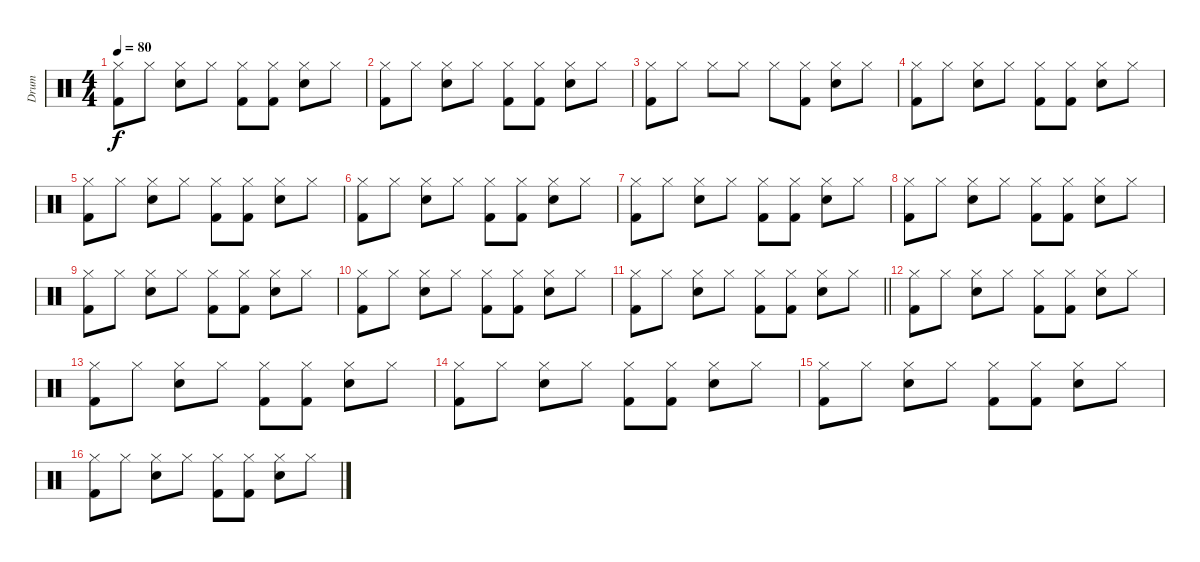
\track ("Drum" "Drum") {instrument percussion}
\staff {score}
\articulation defaults
\ts (4 4)
\tempo 80
\clef neutral
\ks c
("Hi-Hat (closed)" "Kick (hit) 2").8{dy f} "Hi-Hat (closed)".8 ("Hi-Hat (closed)" "Electric Snare (hit)").8 "Hi-Hat (closed)".8 ("Hi-Hat (closed)" "Kick (hit) 2").8 ("Hi-Hat (closed)" "Kick (hit) 2").8 ("Hi-Hat (closed)" "Electric Snare (hit)").8 "Hi-Hat (closed)".8 |
("Hi-Hat (closed)" "Kick (hit) 2").8 "Hi-Hat (closed)".8 ("Hi-Hat (closed)" "Electric Snare (hit)").8 "Hi-Hat (closed)".8 ("Hi-Hat (closed)" "Kick (hit) 2").8 ("Hi-Hat (closed)" "Kick (hit) 2").8 ("Hi-Hat (closed)" "Electric Snare (hit)").8 "Hi-Hat (closed)".8 |
("Hi-Hat (closed)" "Kick (hit) 2").8 "Hi-Hat (closed)".8 "Hi-Hat (closed)".8 "Hi-Hat (closed)".8 "Hi-Hat (closed)".8 ("Hi-Hat (closed)" "Kick (hit) 2").8 ("Hi-Hat (closed)" "Electric Snare (hit)").8 "Hi-Hat (closed)".8 |
("Hi-Hat (closed)" "Kick (hit) 2").8 "Hi-Hat (closed)".8 ("Hi-Hat (closed)" "Electric Snare (hit)").8 "Hi-Hat (closed)".8 ("Hi-Hat (closed)" "Kick (hit) 2").8 ("Hi-Hat (closed)" "Kick (hit) 2").8 ("Hi-Hat (closed)" "Electric Snare (hit)").8 "Hi-Hat (closed)".8 |
("Hi-Hat (closed)" "Kick (hit) 2").8 "Hi-Hat (closed)".8 ("Hi-Hat (closed)" "Electric Snare (hit)").8 "Hi-Hat (closed)".8 ("Hi-Hat (closed)" "Kick (hit) 2").8 ("Hi-Hat (closed)" "Kick (hit) 2").8 ("Hi-Hat (closed)" "Electric Snare (hit)").8 "Hi-Hat (closed)".8 |
("Hi-Hat (closed)" "Kick (hit) 2").8 "Hi-Hat (closed)".8 ("Hi-Hat (closed)" "Electric Snare (hit)").8 "Hi-Hat (closed)".8 ("Hi-Hat (closed)" "Kick (hit) 2").8 ("Hi-Hat (closed)" "Kick (hit) 2").8 ("Hi-Hat (closed)" "Electric Snare (hit)").8 "Hi-Hat (closed)".8 |
("Hi-Hat (closed)" "Kick (hit) 2").8 "Hi-Hat (closed)".8 ("Hi-Hat (closed)" "Electric Snare (hit)").8 "Hi-Hat (closed)".8 ("Hi-Hat (closed)" "Kick (hit) 2").8 ("Hi-Hat (closed)" "Kick (hit) 2").8 ("Hi-Hat (closed)" "Electric Snare (hit)").8 "Hi-Hat (closed)".8 |
("Hi-Hat (closed)" "Kick (hit) 2").8 "Hi-Hat (closed)".8 ("Hi-Hat (closed)" "Electric Snare (hit)").8 "Hi-Hat (closed)".8 ("Hi-Hat (closed)" "Kick (hit) 2").8 ("Hi-Hat (closed)" "Kick (hit) 2").8 ("Hi-Hat (closed)" "Electric Snare (hit)").8 "Hi-Hat (closed)".8 |
("Hi-Hat (closed)" "Kick (hit) 2").8 "Hi-Hat (closed)".8 ("Hi-Hat (closed)" "Electric Snare (hit)").8 "Hi-Hat (closed)".8 ("Hi-Hat (closed)" "Kick (hit) 2").8 ("Hi-Hat (closed)" "Kick (hit) 2").8 ("Hi-Hat (closed)" "Electric Snare (hit)").8 "Hi-Hat (closed)".8 |
("Hi-Hat (closed)" "Kick (hit) 2").8 "Hi-Hat (closed)".8 ("Hi-Hat (closed)" "Electric Snare (hit)").8 "Hi-Hat (closed)".8 ("Hi-Hat (closed)" "Kick (hit) 2").8 ("Hi-Hat (closed)" "Kick (hit) 2").8 ("Hi-Hat (closed)" "Electric Snare (hit)").8 "Hi-Hat (closed)".8 |
\barLineRight lightlight
("Hi-Hat (closed)" "Kick (hit) 2").8 "Hi-Hat (closed)".8 ("Hi-Hat (closed)" "Electric Snare (hit)").8 "Hi-Hat (closed)".8 ("Hi-Hat (closed)" "Kick (hit) 2").8 ("Hi-Hat (closed)" "Kick (hit) 2").8 ("Hi-Hat (closed)" "Electric Snare (hit)").8 "Hi-Hat (closed)".8 |
("Hi-Hat (closed)" "Kick (hit) 2").8 "Hi-Hat (closed)".8 ("Hi-Hat (closed)" "Electric Snare (hit)").8 "Hi-Hat (closed)".8 ("Hi-Hat (closed)" "Kick (hit) 2").8 ("Hi-Hat (closed)" "Kick (hit) 2").8 ("Hi-Hat (closed)" "Electric Snare (hit)").8 "Hi-Hat (closed)".8 |
("Hi-Hat (closed)" "Kick (hit) 2").8 "Hi-Hat (closed)".8 ("Hi-Hat (closed)" "Electric Snare (hit)").8 "Hi-Hat (closed)".8 ("Hi-Hat (closed)" "Kick (hit) 2").8 ("Hi-Hat (closed)" "Kick (hit) 2").8 ("Hi-Hat (closed)" "Electric Snare (hit)").8 "Hi-Hat (closed)".8 |
("Hi-Hat (closed)" "Kick (hit) 2").8 "Hi-Hat (closed)".8 ("Hi-Hat (closed)" "Electric Snare (hit)").8 "Hi-Hat (closed)".8 ("Hi-Hat (closed)" "Kick (hit) 2").8 ("Hi-Hat (closed)" "Kick (hit) 2").8 ("Hi-Hat (closed)" "Electric Snare (hit)").8 "Hi-Hat (closed)".8 |
("Hi-Hat (closed)" "Kick (hit) 2").8 "Hi-Hat (closed)".8 ("Hi-Hat (closed)" "Electric Snare (hit)").8 "Hi-Hat (closed)".8 ("Hi-Hat (closed)" "Kick (hit) 2").8 ("Hi-Hat (closed)" "Kick (hit) 2").8 ("Hi-Hat (closed)" "Electric Snare (hit)").8 "Hi-Hat (closed)".8 |
("Hi-Hat (closed)" "Kick (hit) 2").8 "Hi-Hat (closed)".8 ("Hi-Hat (closed)" "Electric Snare (hit)").8 "Hi-Hat (closed)".8 ("Hi-Hat (closed)" "Kick (hit) 2").8 ("Hi-Hat (closed)" "Kick (hit) 2").8 ("Hi-Hat (closed)" "Electric Snare (hit)").8 "Hi-Hat (closed)".8
